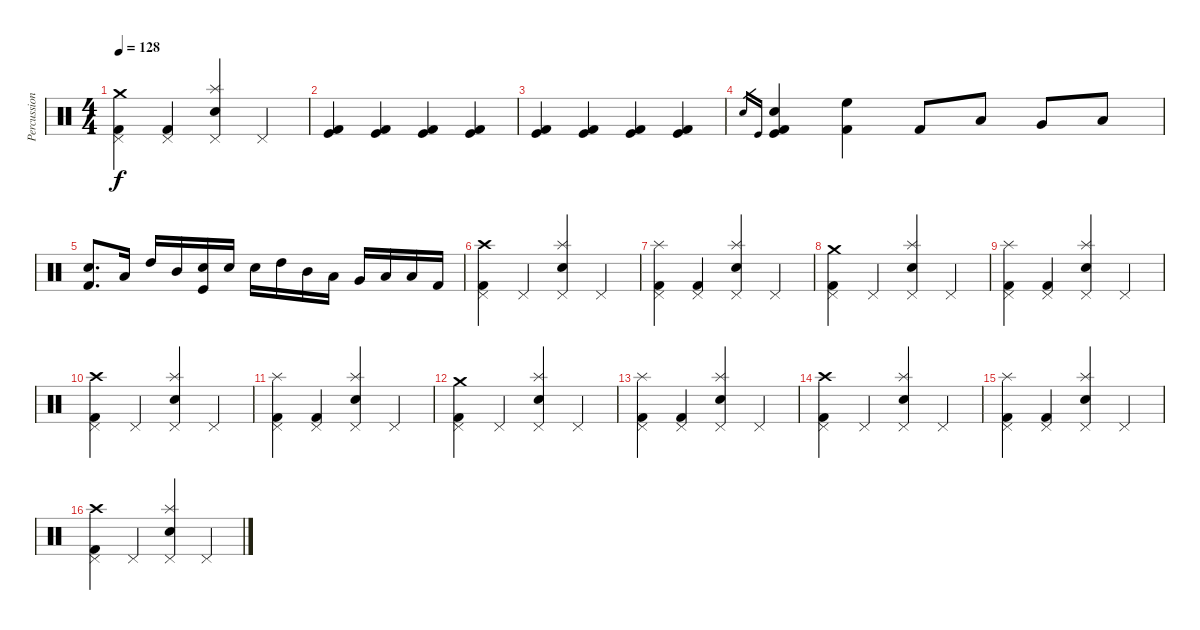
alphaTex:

\track ("Percussion" "Percussion") {instrument percussion}
\staff {score}
\articulation defaults
\ts (4 4)
\tempo 128
\clef neutral
\ks c
("Crash medium (hit)" "Kick (hit) 2" "Pedal Hi-Hat (hit)").4{dy f} ("Kick (hit) 2" "Pedal Hi-Hat (hit)").4 ("Splash (hit)" "Electric Snare (hit)" "Pedal Hi-Hat (hit)").4 "Pedal Hi-Hat (hit)".4 |
("Kick (hit)" "Kick (hit) 2").4 ("Kick (hit)" "Kick (hit) 2").4 ("Kick (hit)" "Kick (hit) 2").4 ("Kick (hit)" "Kick (hit) 2").4 |
("Kick (hit)" "Kick (hit) 2").4 ("Kick (hit)" "Kick (hit) 2").4 ("Kick (hit)" "Kick (hit) 2").4 ("Kick (hit)" "Kick (hit) 2").4 |
"Electric Snare (hit)".16{gr} "Kick (hit)"{h}.16{gr} ("Snare (hit) 2" "Kick (hit)" "Kick (hit) 2").4 ("High Floor Tom (hit)" "Kick (hit) 2").4 "Kick (hit) 2".8 "Low Tom (hit)".8 "Very Low Tom (hit)".8 "Low Floor Tom (hit)".8 |
("Electric Snare (hit)" "Kick (hit) 2").8{d} "Low Floor Tom (hit)".16 "High Tom (hit)".16 "Mid Tom (hit)".16 ("Snare (hit) 2" "Kick (hit)").16 "Electric Snare (hit)".16 "Electric Snare (hit)".16 "High Tom (hit)".16 "Mid Tom (hit)".16 "Low Tom (hit)".16 "Very Low Tom (hit)".16 "Low Floor Tom (hit)".16 "Low Tom (hit)".16 "Kick (hit) 2".16 |
("Crash high (hit)" "Kick (hit) 2" "Pedal Hi-Hat (hit)").4 "Pedal Hi-Hat (hit)".4 ("Splash (hit)" "Electric Snare (hit)" "Pedal Hi-Hat (hit)").4 "Pedal Hi-Hat (hit)".4 |
("Splash (hit)" "Kick (hit) 2" "Pedal Hi-Hat (hit)").4 ("Kick (hit) 2" "Pedal Hi-Hat (hit)").4 ("Splash (hit)" "Electric Snare (hit)" "Pedal Hi-Hat (hit)").4 "Pedal Hi-Hat (hit)".4 |
("Crash medium (hit)" "Kick (hit) 2" "Pedal Hi-Hat (hit)").4 "Pedal Hi-Hat (hit)".4 ("Splash (hit)" "Electric Snare (hit)" "Pedal Hi-Hat (hit)").4 "Pedal Hi-Hat (hit)".4 |
("Splash (hit)" "Kick (hit) 2" "Pedal Hi-Hat (hit)").4 ("Kick (hit) 2" "Pedal Hi-Hat (hit)").4 ("Splash (hit)" "Electric Snare (hit)" "Pedal Hi-Hat (hit)").4 "Pedal Hi-Hat (hit)".4 |
("Crash high (hit)" "Kick (hit) 2" "Pedal Hi-Hat (hit)").4 "Pedal Hi-Hat (hit)".4 ("Splash (hit)" "Electric Snare (hit)" "Pedal Hi-Hat (hit)").4 "Pedal Hi-Hat (hit)".4 |
("Splash (hit)" "Kick (hit) 2" "Pedal Hi-Hat (hit)").4 ("Kick (hit) 2" "Pedal Hi-Hat (hit)").4 ("Splash (hit)" "Electric Snare (hit)" "Pedal Hi-Hat (hit)").4 "Pedal Hi-Hat (hit)".4 |
("Crash medium (hit)" "Kick (hit) 2" "Pedal Hi-Hat (hit)").4 "Pedal Hi-Hat (hit)".4 ("Splash (hit)" "Electric Snare (hit)" "Pedal Hi-Hat (hit)").4 "Pedal Hi-Hat (hit)".4 |
("Splash (hit)" "Kick (hit) 2" "Pedal Hi-Hat (hit)").4 ("Kick (hit) 2" "Pedal Hi-Hat (hit)").4 ("Splash (hit)" "Electric Snare (hit)" "Pedal Hi-Hat (hit)").4 "Pedal Hi-Hat (hit)".4 |
("Crash high (hit)" "Kick (hit) 2" "Pedal Hi-Hat (hit)").4 "Pedal Hi-Hat (hit)".4 ("Splash (hit)" "Electric Snare (hit)" "Pedal Hi-Hat (hit)").4 "Pedal Hi-Hat (hit)".4 |
("Splash (hit)" "Kick (hit) 2" "Pedal Hi-Hat (hit)").4 ("Kick (hit) 2" "Pedal Hi-Hat (hit)").4 ("Splash (hit)" "Electric Snare (hit)" "Pedal Hi-Hat (hit)").4 "Pedal Hi-Hat (hit)".4 |
("Crash high (hit)" "Kick (hit) 2" "Pedal Hi-Hat (hit)").4 "Pedal Hi-Hat (hit)".4 ("Splash (hit)" "Electric Snare (hit)" "Pedal Hi-Hat (hit)").4 "Pedal Hi-Hat (hit)".4
